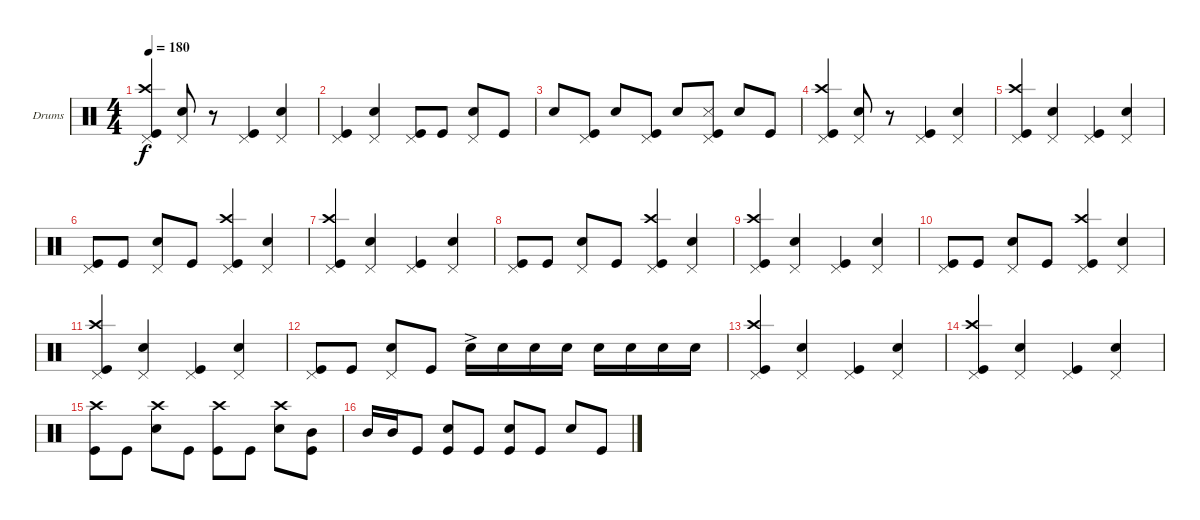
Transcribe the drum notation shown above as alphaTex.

\defaultSystemsLayout 4
\bracketExtendMode groupsimilarinstruments
\firstSystemTrackNameOrientation horizontal
\otherSystemsTrackNameOrientation horizontal
\track ("Drumkit" "Drums") {multiBarRest instrument percussion}
\staff {score}
\articulation defaults
\ts (4 4)
\tempo 180
\clef neutral
\scale
0.333333
\ks c
("Pedal Hi-Hat (hit)" "Crash high (hit)" "Kick (hit)").4{dy f} ("Pedal Hi-Hat (hit)" "Snare (hit) 2").8 r.8 ("Pedal Hi-Hat (hit)" "Kick (hit)").4 ("Pedal Hi-Hat (hit)" "Snare (hit) 2").4 |
\scale
0.333333 ("Pedal Hi-Hat (hit)" "Kick (hit)").4 ("Pedal Hi-Hat (hit)" "Snare (hit) 2").4 ("Pedal Hi-Hat (hit)" "Kick (hit)").8 "Kick (hit)".8 ("Pedal Hi-Hat (hit)" "Snare (hit) 2").8 "Kick (hit)".8 |
\scale
0.333333 "Snare (hit) 2".8 ("Pedal Hi-Hat (hit)" "Kick (hit)").8 "Snare (hit) 2".8 ("Pedal Hi-Hat (hit)" "Kick (hit)").8 "Snare (hit) 2".8 ("Pedal Hi-Hat (hit)" "Snare (side stick) 3" "Kick (hit)").8 "Snare (hit) 2".8 "Kick (hit)".8 |
\scale
0.333333 ("Pedal Hi-Hat (hit)" "Crash high (hit)" "Kick (hit)").4 ("Pedal Hi-Hat (hit)" "Snare (hit) 2").8 r.8 ("Pedal Hi-Hat (hit)" "Kick (hit)").4 ("Pedal Hi-Hat (hit)" "Snare (hit) 2").4 |
\scale
0.333333 ("Pedal Hi-Hat (hit)" "Crash high (hit)" "Kick (hit)").4 ("Pedal Hi-Hat (hit)" "Snare (hit) 2").4 ("Pedal Hi-Hat (hit)" "Kick (hit)").4 ("Pedal Hi-Hat (hit)" "Snare (hit) 2").4 |
\scale
0.333333 ("Pedal Hi-Hat (hit)" "Kick (hit)").8 "Kick (hit)".8 ("Pedal Hi-Hat (hit)" "Snare (hit) 2").8 "Kick (hit)".8 ("Pedal Hi-Hat (hit)" "Crash high (hit)" "Kick (hit)").4 ("Pedal Hi-Hat (hit)" "Snare (hit) 2").4 |
\scale
0.333333 ("Pedal Hi-Hat (hit)" "Crash high (hit)" "Kick (hit)").4 ("Pedal Hi-Hat (hit)" "Snare (hit) 2").4 ("Pedal Hi-Hat (hit)" "Kick (hit)").4 ("Pedal Hi-Hat (hit)" "Snare (hit) 2").4 |
\scale
0.333333 ("Pedal Hi-Hat (hit)" "Kick (hit)").8 "Kick (hit)".8 ("Pedal Hi-Hat (hit)" "Snare (hit) 2").8 "Kick (hit)".8 ("Pedal Hi-Hat (hit)" "Crash high (hit)" "Kick (hit)").4 ("Pedal Hi-Hat (hit)" "Snare (hit) 2").4 |
\scale
0.333333 ("Pedal Hi-Hat (hit)" "Crash high (hit)" "Kick (hit)").4 ("Pedal Hi-Hat (hit)" "Snare (hit) 2").4 ("Pedal Hi-Hat (hit)" "Kick (hit)").4 ("Pedal Hi-Hat (hit)" "Snare (hit) 2").4 |
\scale
0.333333 ("Pedal Hi-Hat (hit)" "Kick (hit)").8 "Kick (hit)".8 ("Pedal Hi-Hat (hit)" "Snare (hit) 2").8 "Kick (hit)".8 ("Pedal Hi-Hat (hit)" "Crash high (hit)" "Kick (hit)").4 ("Pedal Hi-Hat (hit)" "Snare (hit) 2").4 |
\scale
0.333333 ("Pedal Hi-Hat (hit)" "Crash high (hit)" "Kick (hit)").4 ("Pedal Hi-Hat (hit)" "Snare (hit) 2").4 ("Pedal Hi-Hat (hit)" "Kick (hit)").4 ("Pedal Hi-Hat (hit)" "Snare (hit) 2").4 |
\scale
0.333333 ("Pedal Hi-Hat (hit)" "Kick (hit)").8 "Kick (hit)".8 ("Pedal Hi-Hat (hit)" "Snare (hit) 2").8 "Kick (hit)".8 "Snare (hit) 2"{ac}.16 "Snare (hit) 2".16 "Snare (hit) 2".16 "Snare (hit) 2".16 "Snare (hit) 2".16 "Snare (hit) 2".16 "Snare (hit) 2".16 "Snare (hit) 2".16 |
\scale
0.333333 ("Pedal Hi-Hat (hit)" "Crash high (hit)" "Kick (hit)").4 ("Pedal Hi-Hat (hit)" "Snare (hit) 2").4 ("Pedal Hi-Hat (hit)" "Kick (hit)").4 ("Pedal Hi-Hat (hit)" "Snare (hit) 2").4 |
\scale
0.333333 ("Pedal Hi-Hat (hit)" "Crash high (hit)" "Kick (hit)").4 ("Pedal Hi-Hat (hit)" "Snare (hit) 2").4 ("Pedal Hi-Hat (hit)" "Kick (hit)").4 ("Pedal Hi-Hat (hit)" "Snare (hit) 2").4 |
\scale
0.333333 ("Crash high (hit)" "Kick (hit)").8 "Kick (hit)".8 ("Crash high (hit)" "Snare (hit) 2").8 "Kick (hit)".8 ("Crash high (hit)" "Kick (hit)").8 "Kick (hit)".8 ("Crash high (hit)" "Snare (hit) 2").8 ("Mid Tom (hit)" "Kick (hit)").8 |
\scale
0.333333 "Mid Tom (hit)".16 "Mid Tom (hit)".16 "Kick (hit)".8 ("Snare (hit) 2" "Kick (hit)").8 "Kick (hit)".8 ("Snare (hit) 2" "Kick (hit)").8 "Kick (hit)".8 "Snare (hit) 2".8 "Kick (hit)".8
